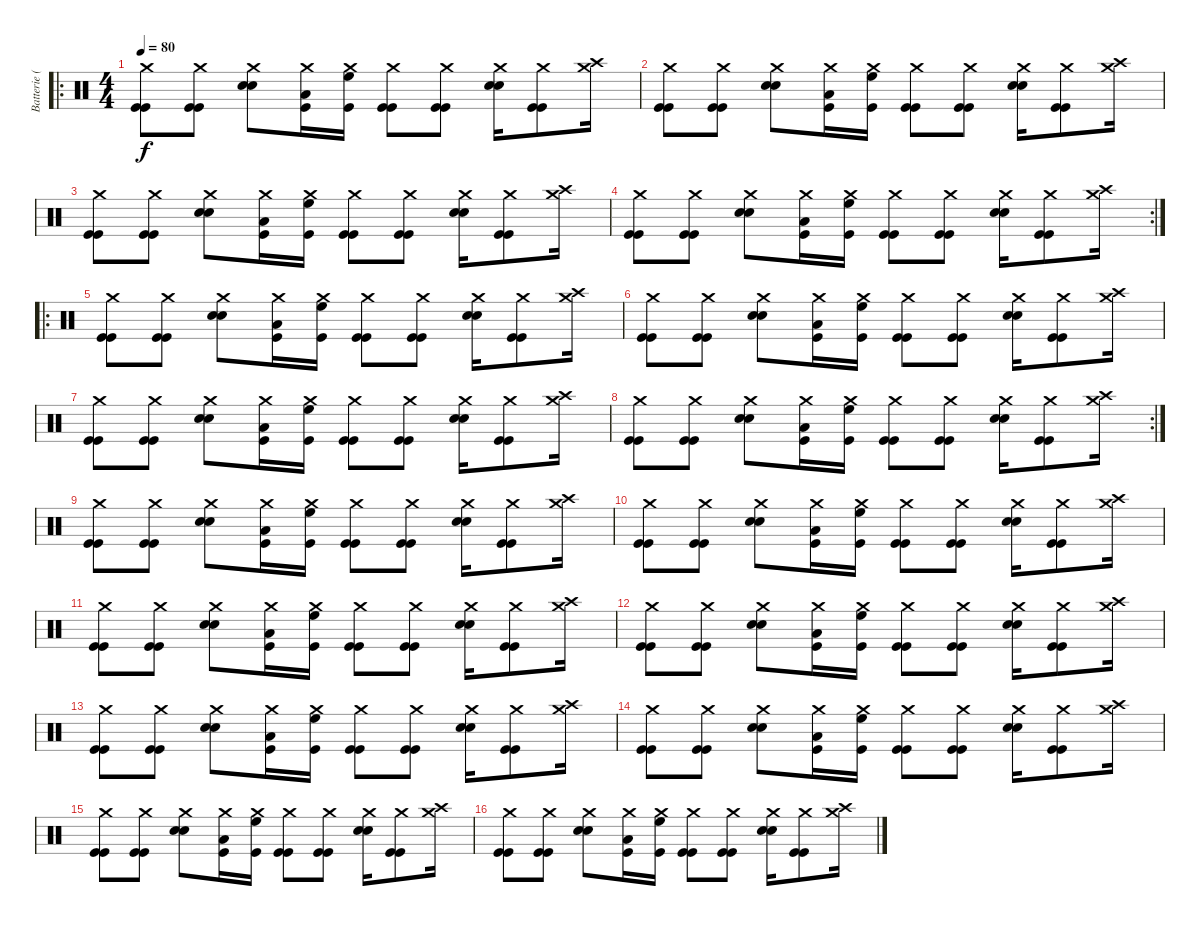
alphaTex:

\track ("Batterie (dark)" "Batterie (") {instrument percussion}
\staff {score}
\articulation defaults
\ro
\ts (4 4)
\tempo 80
\clef neutral
\ks c
("Crash medium (hit)" "Kick (hit)" "Kick (hit)").8{dy f} ("Crash medium (hit)" "Kick (hit)" "Kick (hit)").8 ("Crash medium (hit)" "Snare (hit) 2" "Snare (hit) 2").8 ("Crash medium (hit)" "Kick (hit)" "Low Tom (hit)").16 ("Crash medium (hit)" "Kick (hit)" "High Floor Tom (hit)").16 ("Crash medium (hit)" "Kick (hit)" "Kick (hit)").8 ("Crash medium (hit)" "Kick (hit)" "Kick (hit)").8 ("Crash medium (hit)" "Snare (hit) 2" "Snare (hit) 2").16 ("Crash medium (hit)" "Kick (hit)" "Kick (hit)").8 ("Crash medium (hit)" "Crash high (hit)").16 |
("Crash medium (hit)" "Kick (hit)" "Kick (hit)").8 ("Crash medium (hit)" "Kick (hit)" "Kick (hit)").8 ("Crash medium (hit)" "Snare (hit) 2" "Snare (hit) 2").8 ("Crash medium (hit)" "Kick (hit)" "Low Tom (hit)").16 ("Crash medium (hit)" "Kick (hit)" "High Floor Tom (hit)").16 ("Crash medium (hit)" "Kick (hit)" "Kick (hit)").8 ("Crash medium (hit)" "Kick (hit)" "Kick (hit)").8 ("Crash medium (hit)" "Snare (hit) 2" "Snare (hit) 2").16 ("Crash medium (hit)" "Kick (hit)" "Kick (hit)").8 ("Crash medium (hit)" "Crash high (hit)").16 |
("Crash medium (hit)" "Kick (hit)" "Kick (hit)").8 ("Crash medium (hit)" "Kick (hit)" "Kick (hit)").8 ("Crash medium (hit)" "Snare (hit) 2" "Snare (hit) 2").8 ("Crash medium (hit)" "Kick (hit)" "Low Tom (hit)").16 ("Crash medium (hit)" "Kick (hit)" "High Floor Tom (hit)").16 ("Crash medium (hit)" "Kick (hit)" "Kick (hit)").8 ("Crash medium (hit)" "Kick (hit)" "Kick (hit)").8 ("Crash medium (hit)" "Snare (hit) 2" "Snare (hit) 2").16 ("Crash medium (hit)" "Kick (hit)" "Kick (hit)").8 ("Crash medium (hit)" "Crash high (hit)").16 |
\rc 2
("Crash medium (hit)" "Kick (hit)" "Kick (hit)").8 ("Crash medium (hit)" "Kick (hit)" "Kick (hit)").8 ("Crash medium (hit)" "Snare (hit) 2" "Snare (hit) 2").8 ("Crash medium (hit)" "Kick (hit)" "Low Tom (hit)").16 ("Crash medium (hit)" "Kick (hit)" "High Floor Tom (hit)").16 ("Crash medium (hit)" "Kick (hit)" "Kick (hit)").8 ("Crash medium (hit)" "Kick (hit)" "Kick (hit)").8 ("Crash medium (hit)" "Snare (hit) 2" "Snare (hit) 2").16 ("Crash medium (hit)" "Kick (hit)" "Kick (hit)").8 ("Crash medium (hit)" "Crash high (hit)").16 |
\ro
("Crash medium (hit)" "Kick (hit)" "Kick (hit)").8 ("Crash medium (hit)" "Kick (hit)" "Kick (hit)").8 ("Crash medium (hit)" "Snare (hit) 2" "Snare (hit) 2").8 ("Crash medium (hit)" "Kick (hit)" "Low Tom (hit)").16 ("Crash medium (hit)" "Kick (hit)" "High Floor Tom (hit)").16 ("Crash medium (hit)" "Kick (hit)" "Kick (hit)").8 ("Crash medium (hit)" "Kick (hit)" "Kick (hit)").8 ("Crash medium (hit)" "Snare (hit) 2" "Snare (hit) 2").16 ("Crash medium (hit)" "Kick (hit)" "Kick (hit)").8 ("Crash medium (hit)" "Crash high (hit)").16 |
("Crash medium (hit)" "Kick (hit)" "Kick (hit)").8 ("Crash medium (hit)" "Kick (hit)" "Kick (hit)").8 ("Crash medium (hit)" "Snare (hit) 2" "Snare (hit) 2").8 ("Crash medium (hit)" "Kick (hit)" "Low Tom (hit)").16 ("Crash medium (hit)" "Kick (hit)" "High Floor Tom (hit)").16 ("Crash medium (hit)" "Kick (hit)" "Kick (hit)").8 ("Crash medium (hit)" "Kick (hit)" "Kick (hit)").8 ("Crash medium (hit)" "Snare (hit) 2" "Snare (hit) 2").16 ("Crash medium (hit)" "Kick (hit)" "Kick (hit)").8 ("Crash medium (hit)" "Crash high (hit)").16 |
("Crash medium (hit)" "Kick (hit)" "Kick (hit)").8 ("Crash medium (hit)" "Kick (hit)" "Kick (hit)").8 ("Crash medium (hit)" "Snare (hit) 2" "Snare (hit) 2").8 ("Crash medium (hit)" "Kick (hit)" "Low Tom (hit)").16 ("Crash medium (hit)" "Kick (hit)" "High Floor Tom (hit)").16 ("Crash medium (hit)" "Kick (hit)" "Kick (hit)").8 ("Crash medium (hit)" "Kick (hit)" "Kick (hit)").8 ("Crash medium (hit)" "Snare (hit) 2" "Snare (hit) 2").16 ("Crash medium (hit)" "Kick (hit)" "Kick (hit)").8 ("Crash medium (hit)" "Crash high (hit)").16 |
\rc 2
("Crash medium (hit)" "Kick (hit)" "Kick (hit)").8 ("Crash medium (hit)" "Kick (hit)" "Kick (hit)").8 ("Crash medium (hit)" "Snare (hit) 2" "Snare (hit) 2").8 ("Crash medium (hit)" "Kick (hit)" "Low Tom (hit)").16 ("Crash medium (hit)" "Kick (hit)" "High Floor Tom (hit)").16 ("Crash medium (hit)" "Kick (hit)" "Kick (hit)").8 ("Crash medium (hit)" "Kick (hit)" "Kick (hit)").8 ("Crash medium (hit)" "Snare (hit) 2" "Snare (hit) 2").16 ("Crash medium (hit)" "Kick (hit)" "Kick (hit)").8 ("Crash medium (hit)" "Crash high (hit)").16 |
("Crash medium (hit)" "Kick (hit)" "Kick (hit)").8 ("Crash medium (hit)" "Kick (hit)" "Kick (hit)").8 ("Crash medium (hit)" "Snare (hit) 2" "Snare (hit) 2").8 ("Crash medium (hit)" "Kick (hit)" "Low Tom (hit)").16 ("Crash medium (hit)" "Kick (hit)" "High Floor Tom (hit)").16 ("Crash medium (hit)" "Kick (hit)" "Kick (hit)").8 ("Crash medium (hit)" "Kick (hit)" "Kick (hit)").8 ("Crash medium (hit)" "Snare (hit) 2" "Snare (hit) 2").16 ("Crash medium (hit)" "Kick (hit)" "Kick (hit)").8 ("Crash medium (hit)" "Crash high (hit)").16 |
("Crash medium (hit)" "Kick (hit)" "Kick (hit)").8 ("Crash medium (hit)" "Kick (hit)" "Kick (hit)").8 ("Crash medium (hit)" "Snare (hit) 2" "Snare (hit) 2").8 ("Crash medium (hit)" "Kick (hit)" "Low Tom (hit)").16 ("Crash medium (hit)" "Kick (hit)" "High Floor Tom (hit)").16 ("Crash medium (hit)" "Kick (hit)" "Kick (hit)").8 ("Crash medium (hit)" "Kick (hit)" "Kick (hit)").8 ("Crash medium (hit)" "Snare (hit) 2" "Snare (hit) 2").16 ("Crash medium (hit)" "Kick (hit)" "Kick (hit)").8 ("Crash medium (hit)" "Crash high (hit)").16 |
("Crash medium (hit)" "Kick (hit)" "Kick (hit)").8 ("Crash medium (hit)" "Kick (hit)" "Kick (hit)").8 ("Crash medium (hit)" "Snare (hit) 2" "Snare (hit) 2").8 ("Crash medium (hit)" "Kick (hit)" "Low Tom (hit)").16 ("Crash medium (hit)" "Kick (hit)" "High Floor Tom (hit)").16 ("Crash medium (hit)" "Kick (hit)" "Kick (hit)").8 ("Crash medium (hit)" "Kick (hit)" "Kick (hit)").8 ("Crash medium (hit)" "Snare (hit) 2" "Snare (hit) 2").16 ("Crash medium (hit)" "Kick (hit)" "Kick (hit)").8 ("Crash medium (hit)" "Crash high (hit)").16 |
("Crash medium (hit)" "Kick (hit)" "Kick (hit)").8 ("Crash medium (hit)" "Kick (hit)" "Kick (hit)").8 ("Crash medium (hit)" "Snare (hit) 2" "Snare (hit) 2").8 ("Crash medium (hit)" "Kick (hit)" "Low Tom (hit)").16 ("Crash medium (hit)" "Kick (hit)" "High Floor Tom (hit)").16 ("Crash medium (hit)" "Kick (hit)" "Kick (hit)").8 ("Crash medium (hit)" "Kick (hit)" "Kick (hit)").8 ("Crash medium (hit)" "Snare (hit) 2" "Snare (hit) 2").16 ("Crash medium (hit)" "Kick (hit)" "Kick (hit)").8 ("Crash medium (hit)" "Crash high (hit)").16 |
("Crash medium (hit)" "Kick (hit)" "Kick (hit)").8 ("Crash medium (hit)" "Kick (hit)" "Kick (hit)").8 ("Crash medium (hit)" "Snare (hit) 2" "Snare (hit) 2").8 ("Crash medium (hit)" "Kick (hit)" "Low Tom (hit)").16 ("Crash medium (hit)" "Kick (hit)" "High Floor Tom (hit)").16 ("Crash medium (hit)" "Kick (hit)" "Kick (hit)").8 ("Crash medium (hit)" "Kick (hit)" "Kick (hit)").8 ("Crash medium (hit)" "Snare (hit) 2" "Snare (hit) 2").16 ("Crash medium (hit)" "Kick (hit)" "Kick (hit)").8 ("Crash medium (hit)" "Crash high (hit)").16 |
("Crash medium (hit)" "Kick (hit)" "Kick (hit)").8 ("Crash medium (hit)" "Kick (hit)" "Kick (hit)").8 ("Crash medium (hit)" "Snare (hit) 2" "Snare (hit) 2").8 ("Crash medium (hit)" "Kick (hit)" "Low Tom (hit)").16 ("Crash medium (hit)" "Kick (hit)" "High Floor Tom (hit)").16 ("Crash medium (hit)" "Kick (hit)" "Kick (hit)").8 ("Crash medium (hit)" "Kick (hit)" "Kick (hit)").8 ("Crash medium (hit)" "Snare (hit) 2" "Snare (hit) 2").16 ("Crash medium (hit)" "Kick (hit)" "Kick (hit)").8 ("Crash medium (hit)" "Crash high (hit)").16 |
("Crash medium (hit)" "Kick (hit)" "Kick (hit)").8 ("Crash medium (hit)" "Kick (hit)" "Kick (hit)").8 ("Crash medium (hit)" "Snare (hit) 2" "Snare (hit) 2").8 ("Crash medium (hit)" "Kick (hit)" "Low Tom (hit)").16 ("Crash medium (hit)" "Kick (hit)" "High Floor Tom (hit)").16 ("Crash medium (hit)" "Kick (hit)" "Kick (hit)").8 ("Crash medium (hit)" "Kick (hit)" "Kick (hit)").8 ("Crash medium (hit)" "Snare (hit) 2" "Snare (hit) 2").16 ("Crash medium (hit)" "Kick (hit)" "Kick (hit)").8 ("Crash medium (hit)" "Crash high (hit)").16 |
("Crash medium (hit)" "Kick (hit)" "Kick (hit)").8 ("Crash medium (hit)" "Kick (hit)" "Kick (hit)").8 ("Crash medium (hit)" "Snare (hit) 2" "Snare (hit) 2").8 ("Crash medium (hit)" "Kick (hit)" "Low Tom (hit)").16 ("Crash medium (hit)" "Kick (hit)" "High Floor Tom (hit)").16 ("Crash medium (hit)" "Kick (hit)" "Kick (hit)").8 ("Crash medium (hit)" "Kick (hit)" "Kick (hit)").8 ("Crash medium (hit)" "Snare (hit) 2" "Snare (hit) 2").16 ("Crash medium (hit)" "Kick (hit)" "Kick (hit)").8 ("Crash medium (hit)" "Crash high (hit)").16
